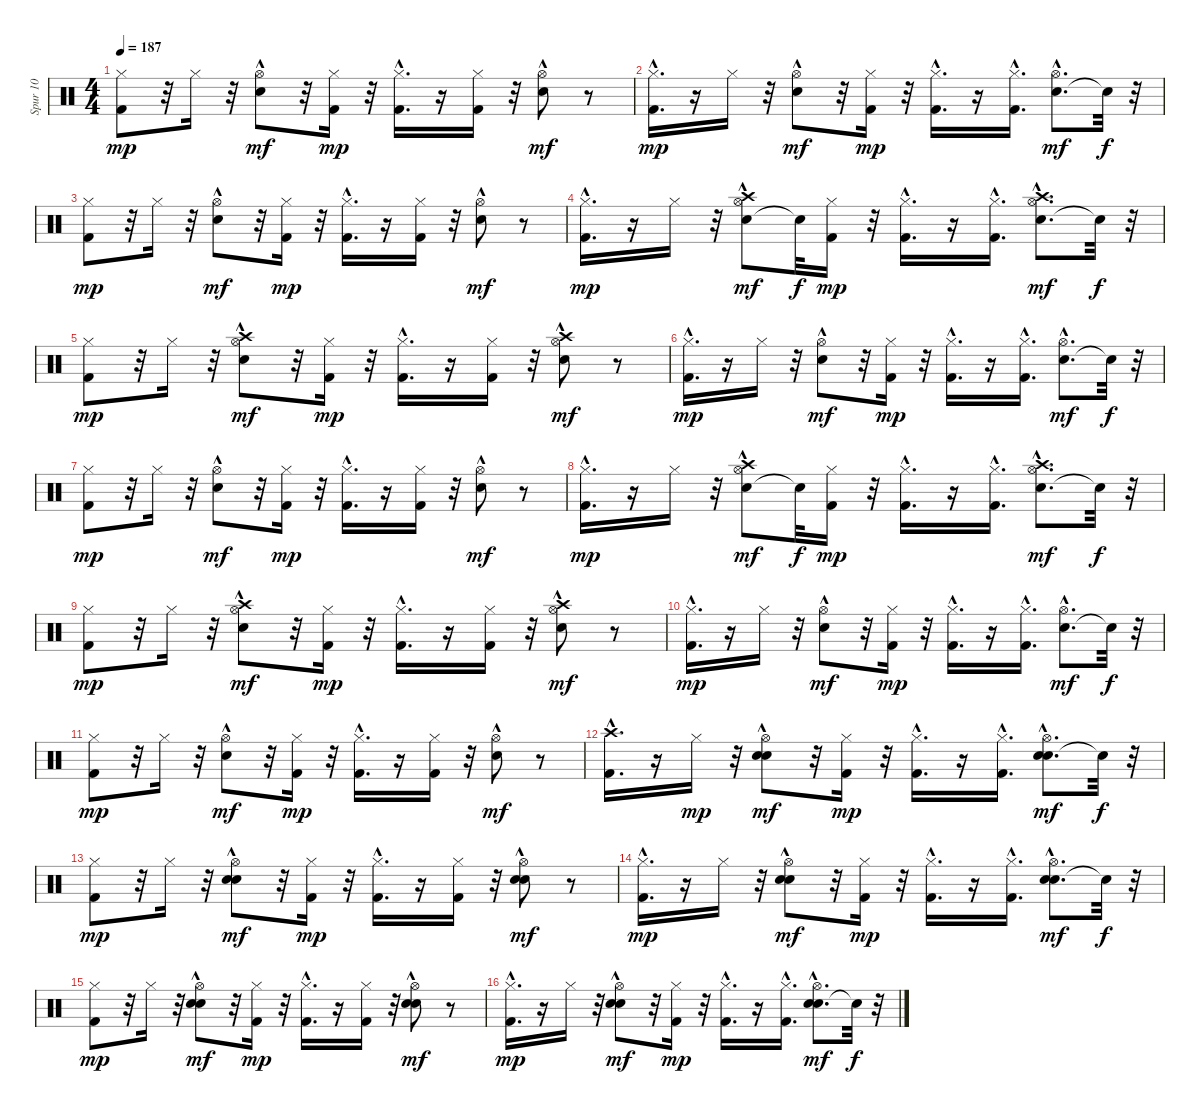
\track ("Spur 10" "Spur 10") {instrument percussion}
\staff {score}
\articulation defaults
\ts (4 4)
\tempo 187
\clef neutral
\ks c
("Kick (hit) 2" "Hi-Hat (closed)").8{dy mp} r.32 "Hi-Hat (closed)".16 r.32 ("Electric Snare (hit)"{hac} "Hi-Hat (open)").8{dy mf} r.32 ("Kick (hit) 2" "Hi-Hat (closed)").16{dy mp} r.32 ("Kick (hit) 2"{hac} "Hi-Hat (closed)").16{d} r.16 ("Kick (hit) 2" "Hi-Hat (closed)").16 r.32 ("Electric Snare (hit)"{hac} "Hi-Hat (open)").8{dy mf} r.8 |
("Kick (hit) 2"{hac} "Hi-Hat (closed)").16{d dy mp} r.16 "Hi-Hat (closed)".16 r.32 ("Electric Snare (hit)"{hac} "Hi-Hat (open)").8{dy mf} r.32 ("Kick (hit) 2" "Hi-Hat (closed)").16{dy mp} r.32 ("Kick (hit) 2"{hac} "Hi-Hat (closed)").16{d} r.16 ("Kick (hit) 2"{hac} "Hi-Hat (closed)").16{d} ("Electric Snare (hit)" "Hi-Hat (open)"{hac}).8{d dy mf} "Snare (hit)"{t}.32{dy f} r.32 |
("Kick (hit) 2" "Hi-Hat (closed)").8{dy mp} r.32 "Hi-Hat (closed)".16 r.32 ("Electric Snare (hit)"{hac} "Hi-Hat (open)").8{dy mf} r.32 ("Kick (hit) 2" "Hi-Hat (closed)").16{dy mp} r.32 ("Kick (hit) 2"{hac} "Hi-Hat (closed)").16{d} r.16 ("Kick (hit) 2" "Hi-Hat (closed)").16 r.32 ("Electric Snare (hit)"{hac} "Hi-Hat (open)").8{dy mf} r.8 |
("Kick (hit) 2"{hac} "Hi-Hat (closed)").16{d dy mp} r.16 "Hi-Hat (closed)".16 r.32 ("Electric Snare (hit)"{hac} "Hi-Hat (open)" "Crash high (hit)").8{dy mf} "Snare (hit)"{t}.32{dy f} ("Kick (hit) 2" "Hi-Hat (closed)").16{dy mp} r.32 ("Kick (hit) 2"{hac} "Hi-Hat (closed)").16{d} r.16 ("Kick (hit) 2"{hac} "Hi-Hat (closed)").16{d} ("Electric Snare (hit)" "Hi-Hat (open)"{hac} "Crash high (hit)").8{d dy mf} "Snare (hit)"{t}.32{dy f} r.32 |
("Kick (hit) 2" "Hi-Hat (closed)").8{dy mp} r.32 "Hi-Hat (closed)".16 r.32 ("Electric Snare (hit)"{hac} "Hi-Hat (open)" "Crash high (hit)").8{dy mf} r.32 ("Kick (hit) 2" "Hi-Hat (closed)").16{dy mp} r.32 ("Kick (hit) 2"{hac} "Hi-Hat (closed)").16{d} r.16 ("Kick (hit) 2" "Hi-Hat (closed)").16 r.32 ("Electric Snare (hit)"{hac} "Hi-Hat (open)" "Crash high (hit)").8{dy mf} r.8 |
("Kick (hit) 2"{hac} "Hi-Hat (closed)").16{d dy mp} r.16 "Hi-Hat (closed)".16 r.32 ("Electric Snare (hit)"{hac} "Hi-Hat (open)").8{dy mf} r.32 ("Kick (hit) 2" "Hi-Hat (closed)").16{dy mp} r.32 ("Kick (hit) 2"{hac} "Hi-Hat (closed)").16{d} r.16 ("Kick (hit) 2"{hac} "Hi-Hat (closed)").16{d} ("Electric Snare (hit)" "Hi-Hat (open)"{hac}).8{d dy mf} "Snare (hit)"{t}.32{dy f} r.32 |
("Kick (hit) 2" "Hi-Hat (closed)").8{dy mp} r.32 "Hi-Hat (closed)".16 r.32 ("Electric Snare (hit)"{hac} "Hi-Hat (open)").8{dy mf} r.32 ("Kick (hit) 2" "Hi-Hat (closed)").16{dy mp} r.32 ("Kick (hit) 2"{hac} "Hi-Hat (closed)").16{d} r.16 ("Kick (hit) 2" "Hi-Hat (closed)").16 r.32 ("Electric Snare (hit)"{hac} "Hi-Hat (open)").8{dy mf} r.8 |
("Kick (hit) 2"{hac} "Hi-Hat (closed)").16{d dy mp} r.16 "Hi-Hat (closed)".16 r.32 ("Electric Snare (hit)"{hac} "Hi-Hat (open)" "Crash high (hit)").8{dy mf} "Snare (hit)"{t}.32{dy f} ("Kick (hit) 2" "Hi-Hat (closed)").16{dy mp} r.32 ("Kick (hit) 2"{hac} "Hi-Hat (closed)").16{d} r.16 ("Kick (hit) 2"{hac} "Hi-Hat (closed)").16{d} ("Electric Snare (hit)" "Hi-Hat (open)"{hac} "Crash high (hit)").8{d dy mf} "Snare (hit)"{t}.32{dy f} r.32 |
("Kick (hit) 2" "Hi-Hat (closed)").8{dy mp} r.32 "Hi-Hat (closed)".16 r.32 ("Electric Snare (hit)"{hac} "Hi-Hat (open)" "Crash high (hit)"{hac}).8{dy mf} r.32 ("Kick (hit) 2" "Hi-Hat (closed)").16{dy mp} r.32 ("Kick (hit) 2"{hac} "Hi-Hat (closed)").16{d} r.16 ("Kick (hit) 2" "Hi-Hat (closed)").16 r.32 ("Electric Snare (hit)"{hac} "Hi-Hat (open)" "Crash high (hit)"{hac}).8{dy mf} r.8 |
("Kick (hit) 2"{hac} "Hi-Hat (closed)").16{d dy mp} r.16 "Hi-Hat (closed)".16 r.32 ("Electric Snare (hit)"{hac} "Hi-Hat (open)").8{dy mf} r.32 ("Kick (hit) 2" "Hi-Hat (closed)").16{dy mp} r.32 ("Kick (hit) 2"{hac} "Hi-Hat (closed)").16{d} r.16 ("Kick (hit) 2"{hac} "Hi-Hat (closed)").16{d} ("Electric Snare (hit)" "Hi-Hat (open)"{hac}).8{d dy mf} "Snare (hit)"{t}.32{dy f} r.32 |
("Kick (hit) 2" "Hi-Hat (closed)").8{dy mp} r.32 "Hi-Hat (closed)".16 r.32 ("Electric Snare (hit)"{hac} "Hi-Hat (open)").8{dy mf} r.32 ("Kick (hit) 2" "Hi-Hat (closed)").16{dy mp} r.32 ("Kick (hit) 2"{hac} "Hi-Hat (closed)").16{d} r.16 ("Kick (hit) 2" "Hi-Hat (closed)").16 r.32 ("Electric Snare (hit)"{hac} "Hi-Hat (open)").8{dy mf} r.8 |
("Kick (hit) 2"{hac} "Crash high (hit)").16{d} r.16 "Hi-Hat (closed)".16{dy mp} r.32 ("Electric Snare (hit)"{hac} "Hi-Hat (open)" "Hand Clap (hit)").8{dy mf} r.32 ("Kick (hit) 2" "Hi-Hat (closed)").16{dy mp} r.32 ("Kick (hit) 2"{hac} "Hi-Hat (closed)").16{d} r.16 ("Kick (hit) 2"{hac} "Hi-Hat (closed)").16{d} ("Electric Snare (hit)" "Hi-Hat (open)"{hac} "Hand Clap (hit)"{hac}).8{d dy mf} "Snare (hit)"{t}.32{dy f} r.32 |
("Kick (hit) 2" "Hi-Hat (closed)").8{dy mp} r.32 "Hi-Hat (closed)".16 r.32 ("Electric Snare (hit)"{hac} "Hi-Hat (open)" "Hand Clap (hit)"{hac}).8{dy mf} r.32 ("Kick (hit) 2" "Hi-Hat (closed)").16{dy mp} r.32 ("Kick (hit) 2"{hac} "Hi-Hat (closed)").16{d} r.16 ("Kick (hit) 2" "Hi-Hat (closed)").16 r.32 ("Electric Snare (hit)"{hac} "Hi-Hat (open)" "Hand Clap (hit)"{hac}).8{dy mf} r.8 |
("Kick (hit) 2"{hac} "Hi-Hat (closed)").16{d dy mp} r.16 "Hi-Hat (closed)".16 r.32 ("Electric Snare (hit)"{hac} "Hi-Hat (open)" "Hand Clap (hit)"{hac}).8{dy mf} r.32 ("Kick (hit) 2" "Hi-Hat (closed)").16{dy mp} r.32 ("Kick (hit) 2"{hac} "Hi-Hat (closed)").16{d} r.16 ("Kick (hit) 2"{hac} "Hi-Hat (closed)").16{d} ("Electric Snare (hit)" "Hi-Hat (open)"{hac} "Hand Clap (hit)"{hac}).8{d dy mf} "Snare (hit)"{t}.32{dy f} r.32 |
("Kick (hit) 2" "Hi-Hat (closed)").8{dy mp} r.32 "Hi-Hat (closed)".16 r.32 ("Electric Snare (hit)"{hac} "Hi-Hat (open)" "Hand Clap (hit)").8{dy mf} r.32 ("Kick (hit) 2" "Hi-Hat (closed)").16{dy mp} r.32 ("Kick (hit) 2"{hac} "Hi-Hat (closed)").16{d} r.16 ("Kick (hit) 2" "Hi-Hat (closed)").16 r.32 ("Electric Snare (hit)"{hac} "Hi-Hat (open)" "Hand Clap (hit)").8{dy mf} r.8 |
("Kick (hit) 2"{hac} "Hi-Hat (closed)").16{d dy mp} r.16 "Hi-Hat (closed)".16 r.32 ("Electric Snare (hit)"{hac} "Hi-Hat (open)" "Hand Clap (hit)").8{dy mf} r.32 ("Kick (hit) 2" "Hi-Hat (closed)").16{dy mp} r.32 ("Kick (hit) 2"{hac} "Hi-Hat (closed)").16{d} r.16 ("Kick (hit) 2"{hac} "Hi-Hat (closed)").16{d} ("Electric Snare (hit)" "Hi-Hat (open)"{hac} "Hand Clap (hit)").8{d dy mf} "Snare (hit)"{t}.32{dy f} r.32
